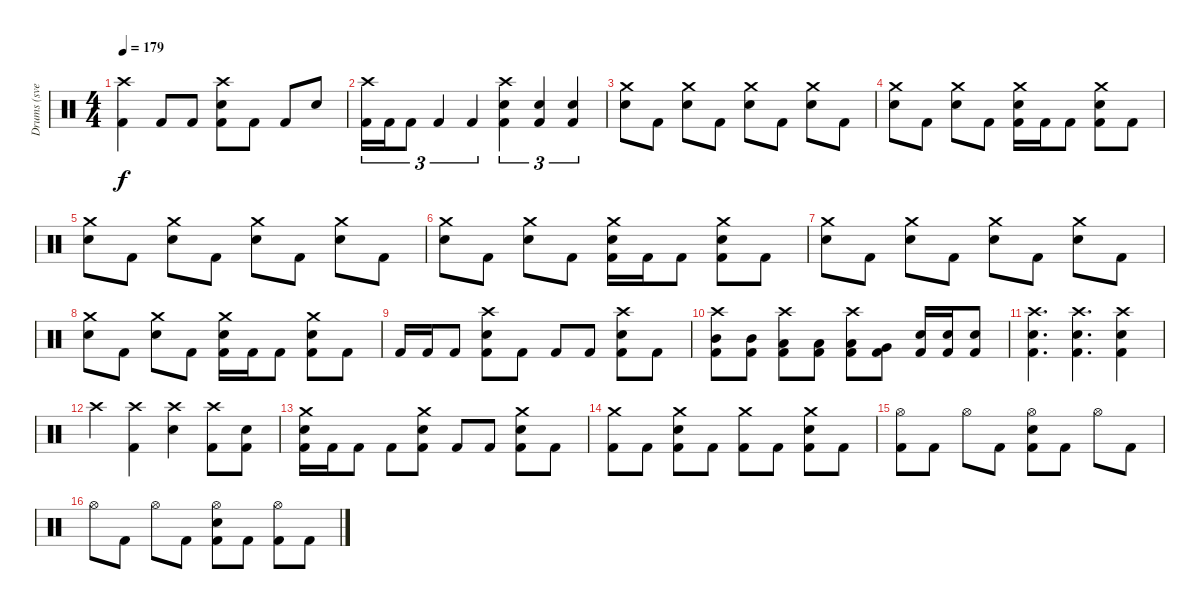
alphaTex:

\track ("Drums (svelle)" "Drums (sve") {instrument percussion}
\staff {score}
\articulation defaults
\ts (4 4)
\tempo 179
\clef neutral
\ks c
("Crash high (hit)" "Kick (hit) 2").4{dy f} "Kick (hit) 2".8 "Kick (hit) 2".8 ("Crash high (hit)" "Electric Snare (hit)" "Kick (hit) 2").8 "Kick (hit) 2".8 "Kick (hit) 2".8 "Electric Snare (hit)".8 |
("Crash high (hit)" "Kick (hit) 2").16{tu (3 2)} "Kick (hit) 2".16{tu (3 2)} "Kick (hit) 2".8{tu (3 2)} "Kick (hit) 2".4{tu (3 2)} "Kick (hit) 2".4{tu (3 2)} ("Crash high (hit)" "Electric Snare (hit)" "Kick (hit) 2").4{tu (3 2)} ("Electric Snare (hit)" "Kick (hit) 2").4{tu (3 2)} ("Electric Snare (hit)" "Kick (hit) 2").4{tu (3 2)} |
("Crash medium (hit)" "Electric Snare (hit)").8 "Kick (hit) 2".8 ("Crash medium (hit)" "Electric Snare (hit)").8 "Kick (hit) 2".8 ("Crash medium (hit)" "Electric Snare (hit)").8 "Kick (hit) 2".8 ("Crash medium (hit)" "Electric Snare (hit)").8 "Kick (hit) 2".8 |
("Crash medium (hit)" "Electric Snare (hit)").8 "Kick (hit) 2".8 ("Crash medium (hit)" "Electric Snare (hit)").8 "Kick (hit) 2".8 ("Crash medium (hit)" "Electric Snare (hit)" "Kick (hit) 2").16 "Kick (hit) 2".16 "Kick (hit) 2".8 ("Crash medium (hit)" "Electric Snare (hit)" "Kick (hit) 2").8 "Kick (hit) 2".8 |
("Crash medium (hit)" "Electric Snare (hit)").8 "Kick (hit) 2".8 ("Crash medium (hit)" "Electric Snare (hit)").8 "Kick (hit) 2".8 ("Crash medium (hit)" "Electric Snare (hit)").8 "Kick (hit) 2".8 ("Crash medium (hit)" "Electric Snare (hit)").8 "Kick (hit) 2".8 |
("Crash medium (hit)" "Electric Snare (hit)").8 "Kick (hit) 2".8 ("Crash medium (hit)" "Electric Snare (hit)").8 "Kick (hit) 2".8 ("Crash medium (hit)" "Electric Snare (hit)" "Kick (hit) 2").16 "Kick (hit) 2".16 "Kick (hit) 2".8 ("Crash medium (hit)" "Electric Snare (hit)" "Kick (hit) 2").8 "Kick (hit) 2".8 |
("Crash medium (hit)" "Electric Snare (hit)").8 "Kick (hit) 2".8 ("Crash medium (hit)" "Electric Snare (hit)").8 "Kick (hit) 2".8 ("Crash medium (hit)" "Electric Snare (hit)").8 "Kick (hit) 2".8 ("Crash medium (hit)" "Electric Snare (hit)").8 "Kick (hit) 2".8 |
("Crash medium (hit)" "Electric Snare (hit)").8 "Kick (hit) 2".8 ("Crash medium (hit)" "Electric Snare (hit)").8 "Kick (hit) 2".8 ("Crash medium (hit)" "Electric Snare (hit)" "Kick (hit) 2").16 "Kick (hit) 2".16 "Kick (hit) 2".8 ("Crash medium (hit)" "Electric Snare (hit)" "Kick (hit) 2").8 "Kick (hit) 2".8 |
"Kick (hit) 2".16 "Kick (hit) 2".16 "Kick (hit) 2".8 ("Crash high (hit)" "Electric Snare (hit)" "Kick (hit) 2").8 "Kick (hit) 2".8 "Kick (hit) 2".8 "Kick (hit) 2".8 ("Crash high (hit)" "Electric Snare (hit)" "Kick (hit) 2").8 "Kick (hit) 2".8 |
("Crash high (hit)" "Mid Tom (hit)" "Kick (hit) 2").8 ("Mid Tom (hit)" "Kick (hit) 2").8 ("Crash high (hit)" "Low Tom (hit)" "Kick (hit) 2").8 ("Low Tom (hit)" "Kick (hit) 2").8 ("Crash high (hit)" "Low Tom (hit)" "Kick (hit) 2").8 ("Very Low Tom (hit)" "Kick (hit) 2").8 ("Electric Snare (hit)" "Kick (hit) 2").16 ("Electric Snare (hit)" "Kick (hit) 2").16 ("Electric Snare (hit)" "Kick (hit) 2").8 |
("Crash high (hit)" "Electric Snare (hit)" "Kick (hit) 2").4{d} ("Crash high (hit)" "Electric Snare (hit)" "Kick (hit) 2").4{d} ("Crash high (hit)" "Electric Snare (hit)" "Kick (hit) 2").4 |
"Crash high (hit)".4 ("Crash high (hit)" "Kick (hit) 2").4 ("Crash high (hit)" "Electric Snare (hit)").4 ("Crash high (hit)" "Kick (hit) 2").8 ("Electric Snare (hit)" "Kick (hit) 2").8 |
("Crash medium (hit)" "Electric Snare (hit)" "Kick (hit) 2").16 "Kick (hit) 2".16 "Kick (hit) 2".8 "Kick (hit) 2".8 ("Crash medium (hit)" "Electric Snare (hit)" "Kick (hit) 2").8 "Kick (hit) 2".8 "Kick (hit) 2".8 ("Crash medium (hit)" "Electric Snare (hit)" "Kick (hit) 2").8 "Kick (hit) 2".8 |
("Crash medium (hit)" "Kick (hit) 2").8 "Kick (hit) 2".8 ("Crash medium (hit)" "Electric Snare (hit)" "Kick (hit) 2").8 "Kick (hit) 2".8 ("Crash medium (hit)" "Kick (hit) 2").8 "Kick (hit) 2".8 ("Crash medium (hit)" "Electric Snare (hit)" "Kick (hit) 2").8 "Kick (hit) 2".8 |
("Hi-Hat (open)" "Kick (hit) 2").8 "Kick (hit) 2".8 "Hi-Hat (open)".8 "Kick (hit) 2".8 ("Hi-Hat (open)" "Electric Snare (hit)" "Kick (hit) 2").8 "Kick (hit) 2".8 "Hi-Hat (open)".8 "Kick (hit) 2".8 |
"Hi-Hat (open)".8 "Kick (hit) 2".8 "Hi-Hat (open)".8 "Kick (hit) 2".8 ("Hi-Hat (open)" "Electric Snare (hit)" "Kick (hit) 2").8 "Kick (hit) 2".8 ("Hi-Hat (open)" "Kick (hit) 2").8 "Kick (hit) 2".8
